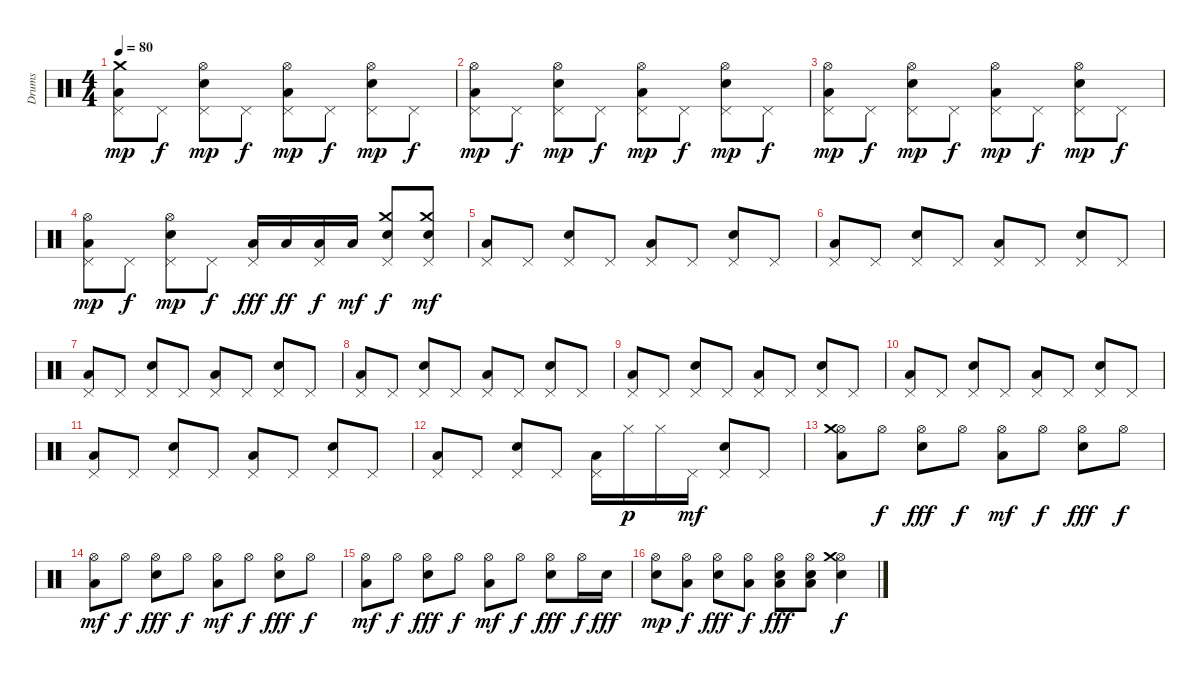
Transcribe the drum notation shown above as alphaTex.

\track ("Drums" "Drums") {instrument percussion}
\staff {score}
\articulation defaults
\ts (4 4)
\tempo 80
\clef neutral
\ks c
("Low Floor Tom (hit)" "Pedal Hi-Hat (hit)" "Crash medium (hit)").8{dy mp} "Pedal Hi-Hat (hit)".8{dy f} ("Electric Snare (hit)" "Pedal Hi-Hat (hit)" "Hi-Hat (open)").8{dy mp} "Pedal Hi-Hat (hit)".8{dy f} ("Low Floor Tom (hit)" "Pedal Hi-Hat (hit)" "Hi-Hat (open)").8{dy mp} "Pedal Hi-Hat (hit)".8{dy f} ("Electric Snare (hit)" "Pedal Hi-Hat (hit)" "Hi-Hat (open)").8{dy mp} "Pedal Hi-Hat (hit)".8{dy f} |
("Low Floor Tom (hit)" "Pedal Hi-Hat (hit)" "Hi-Hat (open)").8{dy mp} "Pedal Hi-Hat (hit)".8{dy f} ("Electric Snare (hit)" "Pedal Hi-Hat (hit)" "Hi-Hat (open)").8{dy mp} "Pedal Hi-Hat (hit)".8{dy f} ("Low Floor Tom (hit)" "Pedal Hi-Hat (hit)" "Hi-Hat (open)").8{dy mp} "Pedal Hi-Hat (hit)".8{dy f} ("Electric Snare (hit)" "Pedal Hi-Hat (hit)" "Hi-Hat (open)").8{dy mp} "Pedal Hi-Hat (hit)".8{dy f} |
("Low Floor Tom (hit)" "Pedal Hi-Hat (hit)" "Hi-Hat (open)").8{dy mp} "Pedal Hi-Hat (hit)".8{dy f} ("Electric Snare (hit)" "Pedal Hi-Hat (hit)" "Hi-Hat (open)").8{dy mp} "Pedal Hi-Hat (hit)".8{dy f} ("Low Floor Tom (hit)" "Pedal Hi-Hat (hit)" "Hi-Hat (open)").8{dy mp} "Pedal Hi-Hat (hit)".8{dy f} ("Electric Snare (hit)" "Pedal Hi-Hat (hit)" "Hi-Hat (open)").8{dy mp} "Pedal Hi-Hat (hit)".8{dy f} |
("Low Floor Tom (hit)" "Pedal Hi-Hat (hit)" "Hi-Hat (open)").8{dy mp} "Pedal Hi-Hat (hit)".8{dy f} ("Electric Snare (hit)" "Pedal Hi-Hat (hit)" "Hi-Hat (open)").8{dy mp} "Pedal Hi-Hat (hit)".8{dy f} ("Low Floor Tom (hit)" "Pedal Hi-Hat (hit)").16{dy fff} "Low Floor Tom (hit)".16{dy ff} ("Low Floor Tom (hit)" "Pedal Hi-Hat (hit)").16{dy f} "Low Floor Tom (hit)".16{dy mf} ("Electric Snare (hit)" "Pedal Hi-Hat (hit)" "Crash medium (hit)").8{dy f} ("Electric Snare (hit)" "Pedal Hi-Hat (hit)" "Crash medium (hit)").8{dy mf} |
("Low Floor Tom (hit)" "Pedal Hi-Hat (hit)").8 "Pedal Hi-Hat (hit)".8 ("Electric Snare (hit)" "Pedal Hi-Hat (hit)").8 "Pedal Hi-Hat (hit)".8 ("Low Floor Tom (hit)" "Pedal Hi-Hat (hit)").8 "Pedal Hi-Hat (hit)".8 ("Electric Snare (hit)" "Pedal Hi-Hat (hit)").8 "Pedal Hi-Hat (hit)".8 |
("Low Floor Tom (hit)" "Pedal Hi-Hat (hit)").8 "Pedal Hi-Hat (hit)".8 ("Electric Snare (hit)" "Pedal Hi-Hat (hit)").8 "Pedal Hi-Hat (hit)".8 ("Low Floor Tom (hit)" "Pedal Hi-Hat (hit)").8 "Pedal Hi-Hat (hit)".8 ("Electric Snare (hit)" "Pedal Hi-Hat (hit)").8 "Pedal Hi-Hat (hit)".8 |
("Low Floor Tom (hit)" "Pedal Hi-Hat (hit)").8 "Pedal Hi-Hat (hit)".8 ("Electric Snare (hit)" "Pedal Hi-Hat (hit)").8 "Pedal Hi-Hat (hit)".8 ("Low Floor Tom (hit)" "Pedal Hi-Hat (hit)").8 "Pedal Hi-Hat (hit)".8 ("Electric Snare (hit)" "Pedal Hi-Hat (hit)").8 "Pedal Hi-Hat (hit)".8 |
("Low Floor Tom (hit)" "Pedal Hi-Hat (hit)").8 "Pedal Hi-Hat (hit)".8 ("Electric Snare (hit)" "Pedal Hi-Hat (hit)").8 "Pedal Hi-Hat (hit)".8 ("Low Floor Tom (hit)" "Pedal Hi-Hat (hit)").8 "Pedal Hi-Hat (hit)".8 ("Electric Snare (hit)" "Pedal Hi-Hat (hit)").8 "Pedal Hi-Hat (hit)".8 |
("Low Floor Tom (hit)" "Pedal Hi-Hat (hit)").8 "Pedal Hi-Hat (hit)".8 ("Electric Snare (hit)" "Pedal Hi-Hat (hit)").8 "Pedal Hi-Hat (hit)".8 ("Low Floor Tom (hit)" "Pedal Hi-Hat (hit)").8 "Pedal Hi-Hat (hit)".8 ("Electric Snare (hit)" "Pedal Hi-Hat (hit)").8 "Pedal Hi-Hat (hit)".8 |
("Low Floor Tom (hit)" "Pedal Hi-Hat (hit)").8 "Pedal Hi-Hat (hit)".8 ("Electric Snare (hit)" "Pedal Hi-Hat (hit)").8 "Pedal Hi-Hat (hit)".8 ("Low Floor Tom (hit)" "Pedal Hi-Hat (hit)").8 "Pedal Hi-Hat (hit)".8 ("Electric Snare (hit)" "Pedal Hi-Hat (hit)").8 "Pedal Hi-Hat (hit)".8 |
("Low Floor Tom (hit)" "Pedal Hi-Hat (hit)").8 "Pedal Hi-Hat (hit)".8 ("Electric Snare (hit)" "Pedal Hi-Hat (hit)").8 "Pedal Hi-Hat (hit)".8 ("Low Floor Tom (hit)" "Pedal Hi-Hat (hit)").8 "Pedal Hi-Hat (hit)".8 ("Electric Snare (hit)" "Pedal Hi-Hat (hit)").8 "Pedal Hi-Hat (hit)".8 |
("Low Floor Tom (hit)" "Pedal Hi-Hat (hit)").8 "Pedal Hi-Hat (hit)".8 ("Electric Snare (hit)" "Pedal Hi-Hat (hit)").8 "Pedal Hi-Hat (hit)".8 ("Low Floor Tom (hit)" "Pedal Hi-Hat (hit)").16 "Hi-Hat (closed)".16{dy p} "Hi-Hat (closed)".16 "Pedal Hi-Hat (hit)".16{dy mf} ("Electric Snare (hit)" "Pedal Hi-Hat (hit)").8 "Pedal Hi-Hat (hit)".8 |
("Low Floor Tom (hit)" "Hi-Hat (open)" "Crash medium (hit)").8 "Hi-Hat (open)".8{dy f} ("Electric Snare (hit)" "Hi-Hat (open)").8{dy fff} "Hi-Hat (open)".8{dy f} ("Low Floor Tom (hit)" "Hi-Hat (open)").8{dy mf} "Hi-Hat (open)".8{dy f} ("Electric Snare (hit)" "Hi-Hat (open)").8{dy fff} "Hi-Hat (open)".8{dy f} |
("Low Floor Tom (hit)" "Hi-Hat (open)").8{dy mf} "Hi-Hat (open)".8{dy f} ("Electric Snare (hit)" "Hi-Hat (open)").8{dy fff} "Hi-Hat (open)".8{dy f} ("Low Floor Tom (hit)" "Hi-Hat (open)").8{dy mf} "Hi-Hat (open)".8{dy f} ("Electric Snare (hit)" "Hi-Hat (open)").8{dy fff} "Hi-Hat (open)".8{dy f} |
("Low Floor Tom (hit)" "Hi-Hat (open)").8{dy mf} "Hi-Hat (open)".8{dy f} ("Electric Snare (hit)" "Hi-Hat (open)").8{dy fff} "Hi-Hat (open)".8{dy f} ("Low Floor Tom (hit)" "Hi-Hat (open)").8{dy mf} "Hi-Hat (open)".8{dy f} ("Electric Snare (hit)" "Hi-Hat (open)").8{dy fff} "Hi-Hat (open)".16{dy f} "Electric Snare (hit)".16{dy fff} |
("Electric Snare (hit)" "Hi-Hat (open)").8{dy mp} ("Low Floor Tom (hit)" "Hi-Hat (open)").8{dy f} ("Electric Snare (hit)" "Hi-Hat (open)").8{dy fff} ("Low Floor Tom (hit)" "Hi-Hat (open)").8{dy f} ("Low Floor Tom (hit)" "Hi-Hat (open)" "Electric Snare (hit)").8{dy fff} ("Low Floor Tom (hit)" "Hi-Hat (open)" "Electric Snare (hit)").8 ("Electric Snare (hit)" "Hi-Hat (open)" "Crash medium (hit)").4{dy f}
